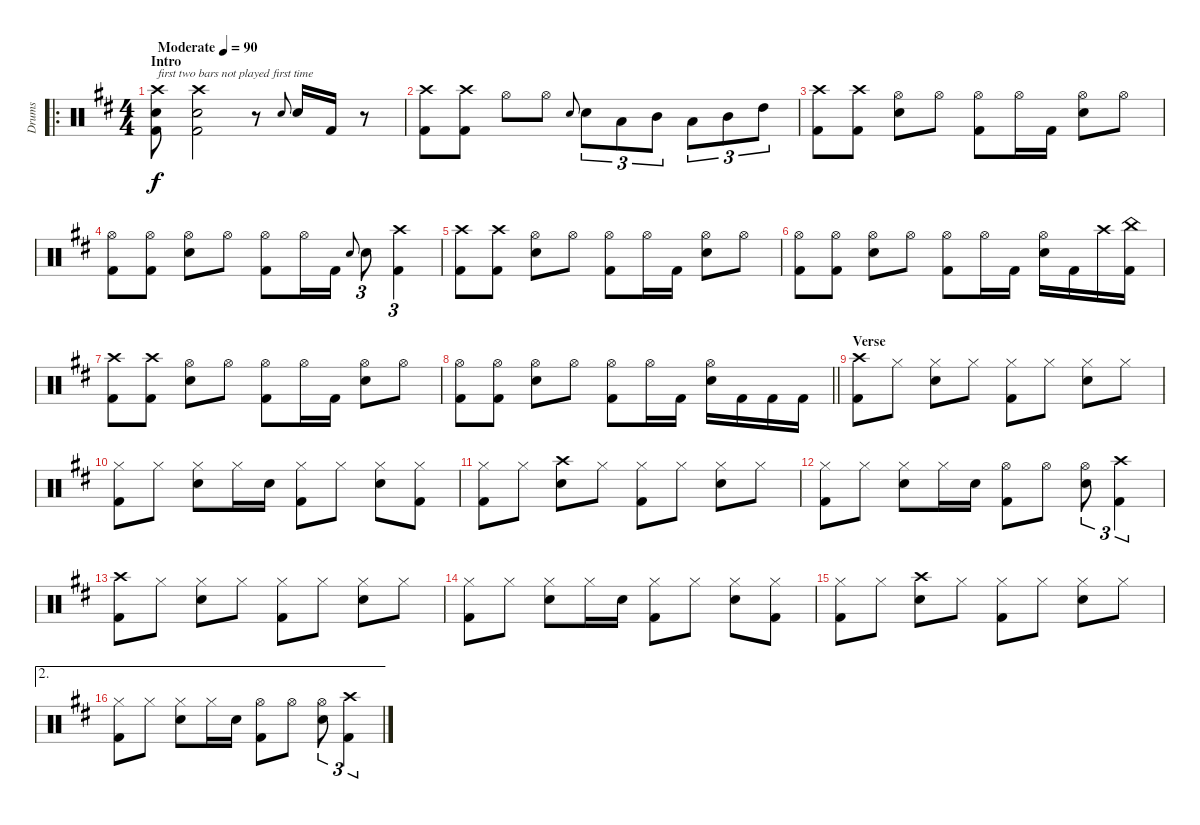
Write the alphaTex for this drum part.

\track ("Drums" "Drums") {instrument percussion}
\staff {score}
\articulation defaults
\ro
\ts (4 4)
\section ("" "Intro")
\tempo (90 "Moderate")
\clef neutral
\ks bminor
("Crash high (hit)" "Snare (hit) 2" "Kick (hit) 2").8{txt "first two bars not played first time" dy f} ("Crash high (hit)" "Snare (hit) 2" "Kick (hit) 2").2 r.8 "Snare (hit) 2".8{gr onbeat} "Snare (hit) 2".16 "Kick (hit) 2".16 r.8 |
("Crash high (hit)" "Kick (hit) 2").8 ("Crash high (hit)" "Kick (hit) 2").8 "Hi-Hat (open)".8 "Hi-Hat (open)".8 "Snare (hit) 2".8{gr onbeat} "Snare (hit) 2".8{tu (3 2)} "Low Tom (hit)".8{tu (3 2)} "Mid Tom (hit)".8{tu (3 2)} "Low Tom (hit)".8{tu (3 2)} "Mid Tom (hit)".8{tu (3 2)} "High Tom (hit)".8{tu (3 2)} |
("Crash high (hit)" "Kick (hit) 2").8{volume 16} ("Crash high (hit)" "Kick (hit) 2").8 ("Hi-Hat (open)" "Snare (hit) 2").8 "Hi-Hat (open)".8 ("Hi-Hat (open)" "Kick (hit) 2").8 "Hi-Hat (open)".16 "Kick (hit) 2".16 ("Hi-Hat (open)" "Snare (hit) 2").8 "Hi-Hat (open)".8 |
("Hi-Hat (open)" "Kick (hit) 2").8 ("Hi-Hat (open)" "Kick (hit) 2").8 ("Hi-Hat (open)" "Snare (hit) 2").8 "Hi-Hat (open)".8 ("Hi-Hat (open)" "Kick (hit) 2").8 "Hi-Hat (open)".16 "Kick (hit) 2".16 "Snare (hit) 2".8{gr onbeat} "Snare (hit) 2".8{tu (3 2)} ("Crash high (hit)" "Kick (hit) 2").4{tu (3 2)} |
("Crash high (hit)" "Kick (hit) 2").8 ("Crash high (hit)" "Kick (hit) 2").8 ("Hi-Hat (open)" "Snare (hit) 2").8 "Hi-Hat (open)".8 ("Hi-Hat (open)" "Kick (hit) 2").8 "Hi-Hat (open)".16 "Kick (hit) 2".16 ("Hi-Hat (open)" "Snare (hit) 2").8 "Hi-Hat (open)".8 |
("Hi-Hat (open)" "Kick (hit) 2").8 ("Hi-Hat (open)" "Kick (hit) 2").8 ("Hi-Hat (open)" "Snare (hit) 2").8 "Hi-Hat (open)".8 ("Hi-Hat (open)" "Kick (hit) 2").8 "Hi-Hat (open)".16 "Kick (hit) 2".16 ("Hi-Hat (open)" "Snare (hit) 2").16 "Kick (hit) 2".16 "Crash high (hit)".16 ("China (hit)" "Kick (hit) 2").16 |
("Crash high (hit)" "Kick (hit) 2").8 ("Crash high (hit)" "Kick (hit) 2").8 ("Hi-Hat (open)" "Snare (hit) 2").8 "Hi-Hat (open)".8 ("Hi-Hat (open)" "Kick (hit) 2").8 "Hi-Hat (open)".16 "Kick (hit) 2".16 ("Hi-Hat (open)" "Snare (hit) 2").8 "Hi-Hat (open)".8 |
\barLineRight lightlight
("Hi-Hat (open)" "Kick (hit) 2").8 ("Hi-Hat (open)" "Kick (hit) 2").8 ("Hi-Hat (open)" "Snare (hit) 2").8 "Hi-Hat (open)".8 ("Hi-Hat (open)" "Kick (hit) 2").8 "Hi-Hat (open)".16 "Kick (hit) 2".16 ("Hi-Hat (open)" "Snare (hit) 2").16 "Kick (hit) 2".16 "Kick (hit) 2".16 "Kick (hit) 2".16 |
\section ("" "Verse")
("Crash high (hit)" "Kick (hit) 2").8 "Hi-Hat (closed)".8 ("Hi-Hat (closed)" "Snare (hit) 2").8 "Hi-Hat (closed)".8 ("Hi-Hat (closed)" "Kick (hit) 2").8 "Hi-Hat (closed)".8 ("Hi-Hat (closed)" "Snare (hit) 2").8 "Hi-Hat (closed)".8 |
("Hi-Hat (closed)" "Kick (hit) 2").8 "Hi-Hat (closed)".8 ("Hi-Hat (closed)" "Snare (hit) 2").8 "Hi-Hat (closed)".16 "Snare (hit) 2".16 ("Hi-Hat (closed)" "Kick (hit) 2").8 "Hi-Hat (closed)".8 ("Hi-Hat (closed)" "Snare (hit) 2").8 ("Hi-Hat (closed)" "Kick (hit) 2").8 |
("Hi-Hat (closed)" "Kick (hit) 2").8 "Hi-Hat (closed)".8 ("Crash high (hit)" "Snare (hit) 2").8 "Hi-Hat (closed)".8 ("Hi-Hat (closed)" "Kick (hit) 2").8 "Hi-Hat (closed)".8 ("Hi-Hat (closed)" "Snare (hit) 2").8 "Hi-Hat (closed)".8 |
("Hi-Hat (closed)" "Kick (hit) 2").8 "Hi-Hat (closed)".8 ("Hi-Hat (closed)" "Snare (hit) 2").8 "Hi-Hat (closed)".16 "Snare (hit) 2".16 ("Hi-Hat (open)" "Kick (hit) 2").8 "Hi-Hat (open)".8 ("Hi-Hat (open)" "Snare (hit) 2").8{tu (3 2)} ("Crash high (hit)" "Kick (hit) 2").4{tu (3 2)} |
("Crash high (hit)" "Kick (hit) 2").8 "Hi-Hat (closed)".8 ("Hi-Hat (closed)" "Snare (hit) 2").8 "Hi-Hat (closed)".8 ("Hi-Hat (closed)" "Kick (hit) 2").8 "Hi-Hat (closed)".8 ("Hi-Hat (closed)" "Snare (hit) 2").8 "Hi-Hat (closed)".8 |
("Hi-Hat (closed)" "Kick (hit) 2").8 "Hi-Hat (closed)".8 ("Hi-Hat (closed)" "Snare (hit) 2").8 "Hi-Hat (closed)".16 "Snare (hit) 2".16 ("Hi-Hat (closed)" "Kick (hit) 2").8 "Hi-Hat (closed)".8 ("Hi-Hat (closed)" "Snare (hit) 2").8 ("Hi-Hat (closed)" "Kick (hit) 2").8 |
("Hi-Hat (closed)" "Kick (hit) 2").8 "Hi-Hat (closed)".8 ("Crash high (hit)" "Snare (hit) 2").8 "Hi-Hat (closed)".8 ("Hi-Hat (closed)" "Kick (hit) 2").8 "Hi-Hat (closed)".8 ("Hi-Hat (closed)" "Snare (hit) 2").8 "Hi-Hat (closed)".8 |
\ae 2
("Hi-Hat (closed)" "Kick (hit) 2").8 "Hi-Hat (closed)".8 ("Hi-Hat (closed)" "Snare (hit) 2").8 "Hi-Hat (closed)".16 "Snare (hit) 2".16 ("Hi-Hat (open)" "Kick (hit) 2").8 "Hi-Hat (open)".8 ("Hi-Hat (open)" "Snare (hit) 2").8{tu (3 2)} ("Crash high (hit)" "Kick (hit) 2").4{tu (3 2)}
